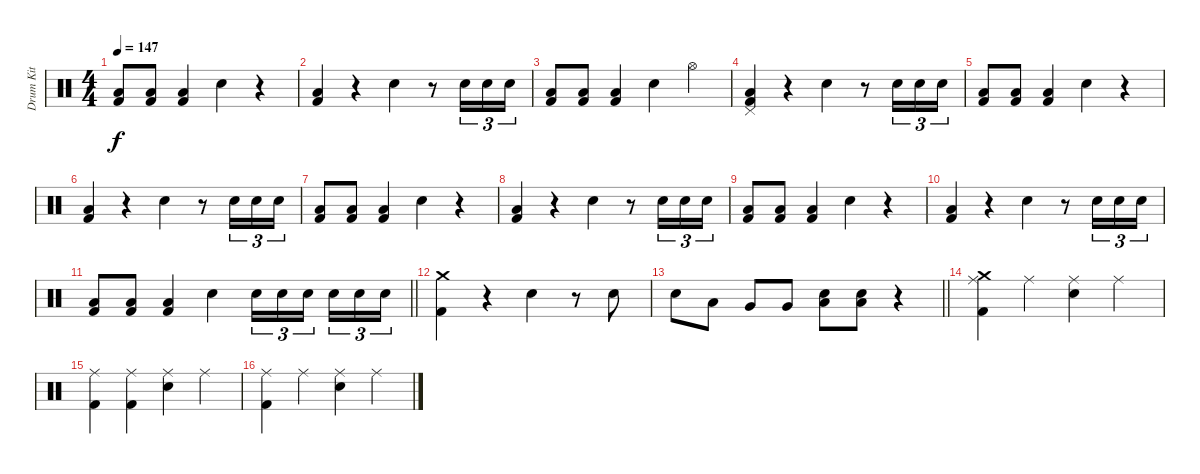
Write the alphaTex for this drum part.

\track ("Drum Kit" "Drum Kit") {instrument percussion}
\staff {score}
\articulation defaults
\ts (4 4)
\tempo 147
\clef neutral
\ks c
("Low Floor Tom (hit)" "Kick (hit) 2").8{dy f} ("Low Floor Tom (hit)" "Kick (hit) 2").8 ("Low Floor Tom (hit)" "Kick (hit) 2").4 "Snare (hit) 2".4 r.4 |
("Low Floor Tom (hit)" "Kick (hit) 2").4 r.4 "Snare (hit) 2".4 r.8 "Snare (hit) 2".16{tu (3 2)} "Snare (hit) 2".16{tu (3 2)} "Snare (hit) 2".16{tu (3 2)} |
("Low Floor Tom (hit)" "Kick (hit) 2").8 ("Low Floor Tom (hit)" "Kick (hit) 2").8 ("Low Floor Tom (hit)" "Kick (hit) 2").4 "Snare (hit) 2".4 "Hi-Hat (open)".4 |
("Pedal Hi-Hat (hit)" "Low Floor Tom (hit)" "Kick (hit) 2").4 r.4 "Snare (hit) 2".4 r.8 "Snare (hit) 2".16{tu (3 2)} "Snare (hit) 2".16{tu (3 2)} "Snare (hit) 2".16{tu (3 2)} |
("Low Floor Tom (hit)" "Kick (hit) 2").8 ("Low Floor Tom (hit)" "Kick (hit) 2").8 ("Low Floor Tom (hit)" "Kick (hit) 2").4 "Snare (hit) 2".4 r.4 |
("Low Floor Tom (hit)" "Kick (hit) 2").4 r.4 "Snare (hit) 2".4 r.8 "Snare (hit) 2".16{tu (3 2)} "Snare (hit) 2".16{tu (3 2)} "Snare (hit) 2".16{tu (3 2)} |
("Low Floor Tom (hit)" "Kick (hit) 2").8 ("Low Floor Tom (hit)" "Kick (hit) 2").8 ("Low Floor Tom (hit)" "Kick (hit) 2").4 "Snare (hit) 2".4 r.4 |
("Low Floor Tom (hit)" "Kick (hit) 2").4 r.4 "Snare (hit) 2".4 r.8 "Snare (hit) 2".16{tu (3 2)} "Snare (hit) 2".16{tu (3 2)} "Snare (hit) 2".16{tu (3 2)} |
("Low Floor Tom (hit)" "Kick (hit) 2").8 ("Low Floor Tom (hit)" "Kick (hit) 2").8 ("Low Floor Tom (hit)" "Kick (hit) 2").4 "Snare (hit) 2".4 r.4 |
("Low Floor Tom (hit)" "Kick (hit) 2").4 r.4 "Snare (hit) 2".4 r.8 "Snare (hit) 2".16{tu (3 2)} "Snare (hit) 2".16{tu (3 2)} "Snare (hit) 2".16{tu (3 2)} |
\barLineRight lightlight
("Low Floor Tom (hit)" "Kick (hit) 2").8 ("Low Floor Tom (hit)" "Kick (hit) 2").8 ("Low Floor Tom (hit)" "Kick (hit) 2").4 "Snare (hit) 2".4 "Snare (hit) 2".16{tu (3 2)} "Snare (hit) 2".16{tu (3 2)} "Snare (hit) 2".16{tu (3 2) beam splitsecondary} "Snare (hit) 2".16{tu (3 2)} "Snare (hit) 2".16{tu (3 2)} "Snare (hit) 2".16{tu (3 2)} |
("Crash medium (hit)" "Kick (hit) 2").4 r.4 "Snare (hit) 2".4 r.8 "Snare (hit) 2".8 |
\barLineRight lightlight "Snare (hit) 2".8 "Low Tom (hit)".8 "Very Low Tom (hit)".8 "Very Low Tom (hit)".8
("Low Floor Tom (hit)" "Snare (hit) 2").8 ("Low Floor Tom (hit)" "Snare (hit) 2").8 r.4 |
("Crash medium (hit)" "Ride (middle)" "Kick (hit) 2").4 "Ride (middle)".4 ("Ride (middle)" "Snare (hit) 2").4 "Ride (middle)".4 |
("Ride (middle)" "Kick (hit) 2").4 ("Ride (middle)" "Kick (hit) 2").4 ("Ride (middle)" "Snare (hit) 2").4 "Ride (middle)".4 |
("Ride (middle)" "Kick (hit) 2").4 "Ride (middle)".4 ("Ride (middle)" "Snare (hit) 2").4 "Ride (middle)".4
